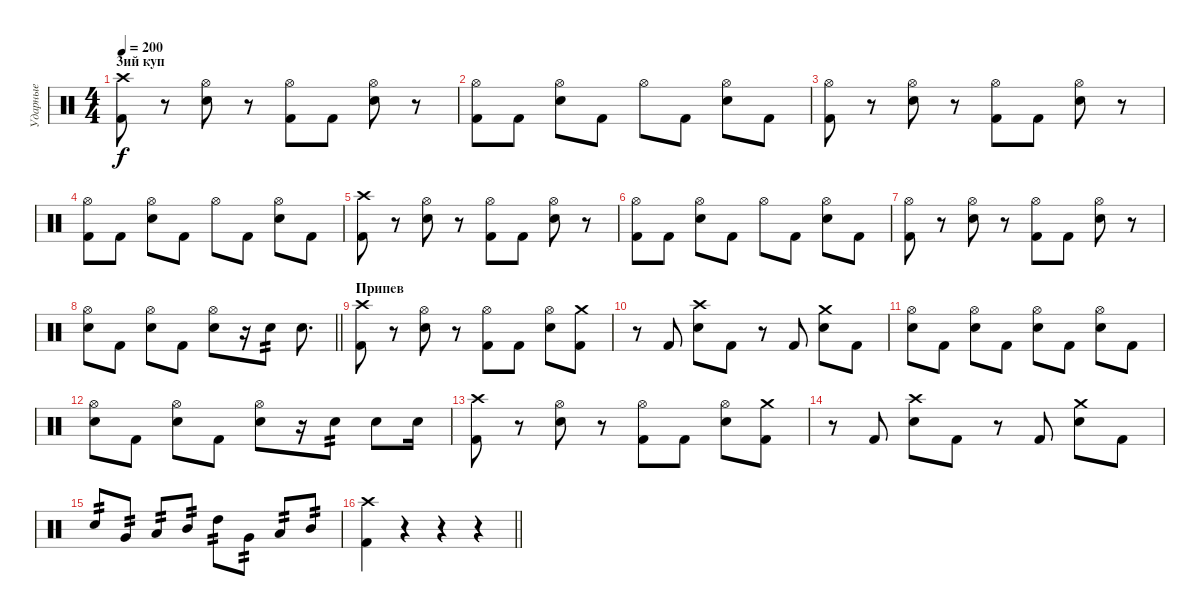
\track ("Ударные" "Ударные") {instrument percussion}
\staff {score}
\articulation defaults
\ts (4 4)
\section ("" "3ий куп")
\tempo 200
\clef neutral
\ks c
("Crash high (hit)" "Kick (hit) 2").8{dy f} r.8 ("Hi-Hat (open)" "Electric Snare (hit)").8 r.8 ("Hi-Hat (open)" "Kick (hit) 2").8 "Kick (hit) 2".8 ("Hi-Hat (open)" "Electric Snare (hit)").8 r.8 |
("Hi-Hat (open)" "Kick (hit) 2").8 "Kick (hit) 2".8 ("Hi-Hat (open)" "Electric Snare (hit)").8 "Kick (hit) 2".8 "Hi-Hat (open)".8 "Kick (hit) 2".8 ("Hi-Hat (open)" "Electric Snare (hit)").8 "Kick (hit) 2".8 |
("Hi-Hat (open)" "Kick (hit) 2").8 r.8 ("Hi-Hat (open)" "Electric Snare (hit)").8 r.8 ("Hi-Hat (open)" "Kick (hit) 2").8 "Kick (hit) 2".8 ("Hi-Hat (open)" "Electric Snare (hit)").8 r.8 |
("Hi-Hat (open)" "Kick (hit) 2").8 "Kick (hit) 2".8 ("Hi-Hat (open)" "Electric Snare (hit)").8 "Kick (hit) 2".8 "Hi-Hat (open)".8 "Kick (hit) 2".8 ("Hi-Hat (open)" "Electric Snare (hit)").8 "Kick (hit) 2".8 |
("Crash high (hit)" "Kick (hit) 2").8 r.8 ("Hi-Hat (open)" "Electric Snare (hit)").8 r.8 ("Hi-Hat (open)" "Kick (hit) 2").8 "Kick (hit) 2".8 ("Hi-Hat (open)" "Electric Snare (hit)").8 r.8 |
("Hi-Hat (open)" "Kick (hit) 2").8 "Kick (hit) 2".8 ("Hi-Hat (open)" "Electric Snare (hit)").8 "Kick (hit) 2".8 "Hi-Hat (open)".8 "Kick (hit) 2".8 ("Hi-Hat (open)" "Electric Snare (hit)").8 "Kick (hit) 2".8 |
("Hi-Hat (open)" "Kick (hit) 2").8 r.8 ("Hi-Hat (open)" "Electric Snare (hit)").8 r.8 ("Hi-Hat (open)" "Kick (hit) 2").8 "Kick (hit) 2".8 ("Hi-Hat (open)" "Electric Snare (hit)").8 r.8 |
\barLineRight lightlight
("Hi-Hat (open)" "Electric Snare (hit)").8 "Kick (hit) 2".8 ("Hi-Hat (open)" "Electric Snare (hit)").8 "Kick (hit) 2".8 ("Hi-Hat (open)" "Electric Snare (hit)").8 r.16 "Electric Snare (hit)".8{tp 2} "Electric Snare (hit)".8{d} |
\section ("" "Припев")
("Crash high (hit)" "Kick (hit) 2").8 r.8 ("Hi-Hat (open)" "Electric Snare (hit)").8 r.8 ("Hi-Hat (open)" "Kick (hit) 2").8 "Kick (hit) 2".8 ("Hi-Hat (open)" "Electric Snare (hit)").8 ("Crash medium (hit)" "Kick (hit) 2").8 |
r.8 "Kick (hit) 2".8 ("Crash high (hit)" "Electric Snare (hit)").8 "Kick (hit) 2".8 r.8 "Kick (hit) 2".8 ("Crash medium (hit)" "Electric Snare (hit)").8 "Kick (hit) 2".8 |
("Hi-Hat (open)" "Electric Snare (hit)").8 "Kick (hit) 2".8 ("Hi-Hat (open)" "Electric Snare (hit)").8 "Kick (hit) 2".8 ("Hi-Hat (open)" "Electric Snare (hit)").8 "Kick (hit) 2".8 ("Hi-Hat (open)" "Electric Snare (hit)").8 "Kick (hit) 2".8 |
("Hi-Hat (open)" "Electric Snare (hit)").8 "Kick (hit) 2".8 ("Hi-Hat (open)" "Electric Snare (hit)").8 "Kick (hit) 2".8 ("Hi-Hat (open)" "Electric Snare (hit)").8 r.16 "Electric Snare (hit)".8{tp 2} "Electric Snare (hit)".8 "Electric Snare (hit)".16 |
("Crash high (hit)" "Kick (hit) 2").8 r.8 ("Hi-Hat (open)" "Electric Snare (hit)").8 r.8 ("Hi-Hat (open)" "Kick (hit) 2").8 "Kick (hit) 2".8 ("Hi-Hat (open)" "Electric Snare (hit)").8 ("Crash medium (hit)" "Kick (hit) 2").8 |
r.8 "Kick (hit) 2".8 ("Crash high (hit)" "Electric Snare (hit)").8 "Kick (hit) 2".8 r.8 "Kick (hit) 2".8 ("Crash medium (hit)" "Electric Snare (hit)").8 "Kick (hit) 2".8 |
"Electric Snare (hit)".8{tp 2} "Very Low Tom (hit)".8{tp 2} "Low Tom (hit)".8{tp 2} "Mid Tom (hit)".8{tp 2} "High Tom (hit)".8{tp 2} "Very Low Tom (hit)".8{tp 2} "Low Tom (hit)".8{tp 2} "Mid Tom (hit)".8{tp 2} |
\barLineRight lightlight
("Crash high (hit)" "Kick (hit) 2").4 r.4 r.4 r.4
